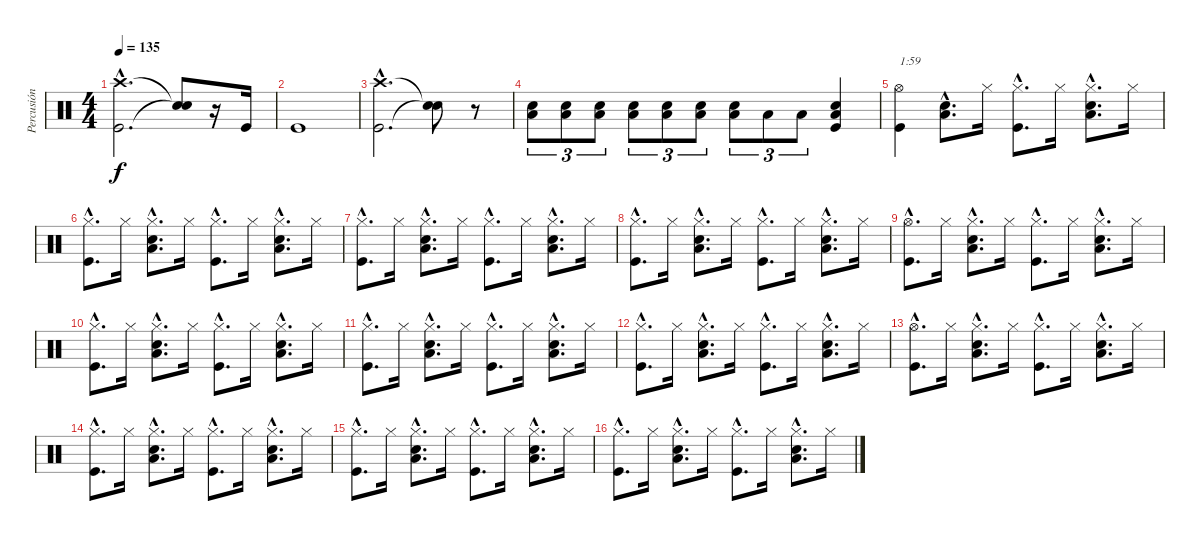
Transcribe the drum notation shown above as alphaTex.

\track ("Percusión" "Percusión") {instrument percussion}
\staff {score}
\articulation defaults
\ts (4 4)
\tempo 135
\clef neutral
\ks c
("Kick (hit)"{hac} "Crash high (hit)"{hac}).2{d dy f} ("Snare (hit)"{t} "Snare (hit)"{t}).8 r.16 "Kick (hit)".16 |
"Kick (hit)".1 |
("Kick (hit)"{hac} "Crash high (hit)"{hac}).2{d} ("Snare (hit)"{t} "Snare (hit)"{t}).8 r.8 |
("Snare (hit) 2" "Low Tom (hit)").8{tu (3 2)} ("Snare (hit) 2" "Low Tom (hit)").8{tu (3 2)} ("Snare (hit) 2" "Low Tom (hit)").8{tu (3 2)} ("Snare (hit) 2" "Low Tom (hit)").8{tu (3 2)} ("Snare (hit) 2" "Low Tom (hit)").8{tu (3 2)} ("Snare (hit) 2" "Low Tom (hit)").8{tu (3 2)} ("Snare (hit) 2" "Low Tom (hit)").8{tu (3 2)} "Low Tom (hit)".8{tu (3 2)} "Low Tom (hit)".8{tu (3 2)} ("Kick (hit)" "Snare (hit) 2" "Low Tom (hit)").4 |
("Kick (hit)" "Hi-Hat (open)").4{txt "1:59"} ("Snare (hit) 2"{hac} "Low Tom (hit)"{hac}).8{d} "Hi-Hat (closed)".16 ("Kick (hit)"{hac} "Hi-Hat (closed)"{hac}).8{d} "Hi-Hat (closed)".16 ("Snare (hit) 2"{hac} "Low Tom (hit)"{hac} "Hi-Hat (closed)"{hac}).8{d} "Hi-Hat (closed)".16 |
("Kick (hit)"{hac} "Hi-Hat (closed)"{hac}).8{d} "Hi-Hat (closed)".16 ("Snare (hit) 2"{hac} "Low Tom (hit)"{hac} "Hi-Hat (closed)"{hac}).8{d} "Hi-Hat (closed)".16 ("Kick (hit)"{hac} "Hi-Hat (closed)"{hac}).8{d} "Hi-Hat (closed)".16 ("Snare (hit) 2"{hac} "Low Tom (hit)"{hac} "Hi-Hat (closed)"{hac}).8{d} "Hi-Hat (closed)".16 |
("Kick (hit)"{hac} "Hi-Hat (closed)"{hac}).8{d} "Hi-Hat (closed)".16 ("Snare (hit) 2"{hac} "Low Tom (hit)"{hac} "Hi-Hat (closed)"{hac}).8{d} "Hi-Hat (closed)".16 ("Kick (hit)"{hac} "Hi-Hat (closed)"{hac}).8{d} "Hi-Hat (closed)".16 ("Snare (hit) 2"{hac} "Low Tom (hit)"{hac} "Hi-Hat (closed)"{hac}).8{d} "Hi-Hat (closed)".16 |
("Kick (hit)"{hac} "Hi-Hat (closed)"{hac}).8{d} "Hi-Hat (closed)".16 ("Snare (hit) 2"{hac} "Low Tom (hit)"{hac} "Hi-Hat (closed)"{hac}).8{d} "Hi-Hat (closed)".16 ("Kick (hit)"{hac} "Hi-Hat (closed)"{hac}).8{d} "Hi-Hat (closed)".16 ("Snare (hit) 2"{hac} "Low Tom (hit)"{hac} "Hi-Hat (closed)"{hac}).8{d} "Hi-Hat (closed)".16 |
("Kick (hit)"{hac} "Hi-Hat (open)"{hac}).8{d} "Hi-Hat (closed)".16 ("Snare (hit) 2"{hac} "Low Tom (hit)"{hac} "Hi-Hat (closed)"{hac}).8{d} "Hi-Hat (closed)".16 ("Kick (hit)"{hac} "Hi-Hat (closed)"{hac}).8{d} "Hi-Hat (closed)".16 ("Snare (hit) 2"{hac} "Low Tom (hit)"{hac} "Hi-Hat (closed)"{hac}).8{d} "Hi-Hat (closed)".16 |
("Kick (hit)"{hac} "Hi-Hat (closed)"{hac}).8{d} "Hi-Hat (closed)".16 ("Snare (hit) 2"{hac} "Low Tom (hit)"{hac} "Hi-Hat (closed)"{hac}).8{d} "Hi-Hat (closed)".16 ("Kick (hit)"{hac} "Hi-Hat (closed)"{hac}).8{d} "Hi-Hat (closed)".16 ("Snare (hit) 2"{hac} "Low Tom (hit)"{hac} "Hi-Hat (closed)"{hac}).8{d} "Hi-Hat (closed)".16 |
("Kick (hit)"{hac} "Hi-Hat (closed)"{hac}).8{d} "Hi-Hat (closed)".16 ("Snare (hit) 2"{hac} "Low Tom (hit)"{hac} "Hi-Hat (closed)"{hac}).8{d} "Hi-Hat (closed)".16 ("Kick (hit)"{hac} "Hi-Hat (closed)"{hac}).8{d} "Hi-Hat (closed)".16 ("Snare (hit) 2"{hac} "Low Tom (hit)"{hac} "Hi-Hat (closed)"{hac}).8{d} "Hi-Hat (closed)".16 |
("Kick (hit)"{hac} "Hi-Hat (closed)"{hac}).8{d} "Hi-Hat (closed)".16 ("Snare (hit) 2"{hac} "Low Tom (hit)"{hac} "Hi-Hat (closed)"{hac}).8{d} "Hi-Hat (closed)".16 ("Kick (hit)"{hac} "Hi-Hat (closed)"{hac}).8{d} "Hi-Hat (closed)".16 ("Snare (hit) 2"{hac} "Low Tom (hit)"{hac} "Hi-Hat (closed)"{hac}).8{d} "Hi-Hat (closed)".16 |
("Kick (hit)"{hac} "Hi-Hat (open)"{hac}).8{d} "Hi-Hat (closed)".16 ("Snare (hit) 2"{hac} "Low Tom (hit)"{hac} "Hi-Hat (closed)"{hac}).8{d} "Hi-Hat (closed)".16 ("Kick (hit)"{hac} "Hi-Hat (closed)"{hac}).8{d} "Hi-Hat (closed)".16 ("Snare (hit) 2"{hac} "Low Tom (hit)"{hac} "Hi-Hat (closed)"{hac}).8{d} "Hi-Hat (closed)".16 |
("Kick (hit)"{hac} "Hi-Hat (closed)"{hac}).8{d} "Hi-Hat (closed)".16 ("Snare (hit) 2"{hac} "Low Tom (hit)"{hac} "Hi-Hat (closed)"{hac}).8{d} "Hi-Hat (closed)".16 ("Kick (hit)"{hac} "Hi-Hat (closed)"{hac}).8{d} "Hi-Hat (closed)".16 ("Snare (hit) 2"{hac} "Low Tom (hit)"{hac} "Hi-Hat (closed)"{hac}).8{d} "Hi-Hat (closed)".16 |
("Kick (hit)"{hac} "Hi-Hat (closed)"{hac}).8{d} "Hi-Hat (closed)".16 ("Snare (hit) 2"{hac} "Low Tom (hit)"{hac} "Hi-Hat (closed)"{hac}).8{d} "Hi-Hat (closed)".16 ("Kick (hit)"{hac} "Hi-Hat (closed)"{hac}).8{d} "Hi-Hat (closed)".16 ("Snare (hit) 2"{hac} "Low Tom (hit)"{hac} "Hi-Hat (closed)"{hac}).8{d} "Hi-Hat (closed)".16 |
("Kick (hit)"{hac} "Hi-Hat (closed)"{hac}).8{d} "Hi-Hat (closed)".16 ("Snare (hit) 2"{hac} "Low Tom (hit)"{hac} "Hi-Hat (closed)"{hac}).8{d} "Hi-Hat (closed)".16 ("Kick (hit)"{hac} "Hi-Hat (closed)"{hac}).8{d} "Hi-Hat (closed)".16 ("Snare (hit) 2"{hac} "Low Tom (hit)"{hac} "Hi-Hat (closed)"{hac}).8{d} "Hi-Hat (closed)".16
